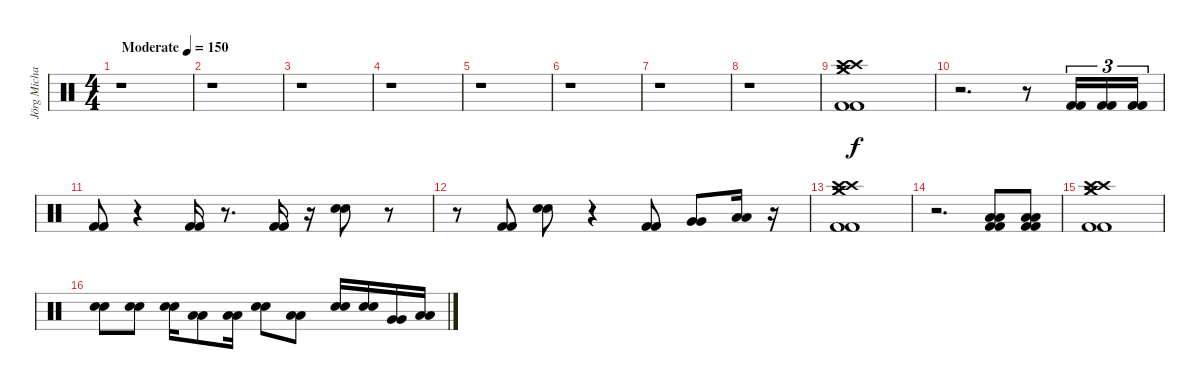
\track ("Jörg Michael" "Jörg Micha") {instrument percussion}
\staff {score}
\articulation defaults
\ts (4 4)
\tempo (150 "Moderate")
\clef neutral
\ks c
r.1{dy f} |
r.1 |
r.1 |
r.1 |
r.1 |
r.1 |
r.1 |
r.1 |
("Crash high (hit)" "Crash medium (hit)" "Kick (hit) 2" "Crash high (hit)" "Crash medium (hit)" "Kick (hit) 2").1 |
r.2{d} r.8 ("Kick (hit) 2" "Kick (hit) 2").16{tu (3 2)} ("Kick (hit) 2" "Kick (hit) 2").16{tu (3 2)} ("Kick (hit) 2" "Kick (hit) 2").16{tu (3 2)} |
("Kick (hit) 2" "Kick (hit) 2").8 r.4 ("Kick (hit) 2" "Kick (hit) 2").16 r.8{d} ("Kick (hit) 2" "Kick (hit) 2").16 r.16 ("Snare (hit) 2" "Snare (hit) 2").8 r.8 |
r.8 ("Kick (hit) 2" "Kick (hit) 2").8 ("Snare (hit) 2" "Snare (hit) 2").8 r.4 ("Kick (hit) 2" "Kick (hit) 2").8 ("Very Low Tom (hit)" "Very Low Tom (hit)").8 ("Low Floor Tom (hit)" "Low Floor Tom (hit)").16 r.16 |
("Crash high (hit)" "Crash medium (hit)" "Kick (hit) 2" "Crash high (hit)" "Crash medium (hit)" "Kick (hit) 2").1 |
r.2{d} ("Kick (hit) 2" "Low Floor Tom (hit)" "Kick (hit) 2" "Low Floor Tom (hit)").8 ("Low Floor Tom (hit)" "Kick (hit) 2" "Low Floor Tom (hit)" "Kick (hit) 2").8 |
("Crash high (hit)" "Crash medium (hit)" "Kick (hit) 2" "Crash high (hit)" "Crash medium (hit)" "Kick (hit) 2").1 |
("Snare (hit) 2" "Snare (hit) 2").8 ("Snare (hit) 2" "Snare (hit) 2").8 ("Snare (hit) 2" "Snare (hit) 2").16 ("Low Floor Tom (hit)" "Low Floor Tom (hit)").8 ("Low Floor Tom (hit)" "Low Floor Tom (hit)").16 ("Snare (hit) 2" "Snare (hit) 2").8 ("Low Floor Tom (hit)" "Low Floor Tom (hit)").8 ("Snare (hit) 2" "Snare (hit) 2").16 ("Snare (hit) 2" "Snare (hit) 2").16 ("Very Low Tom (hit)" "Very Low Tom (hit)").16 ("Low Floor Tom (hit)" "Low Floor Tom (hit)").16
